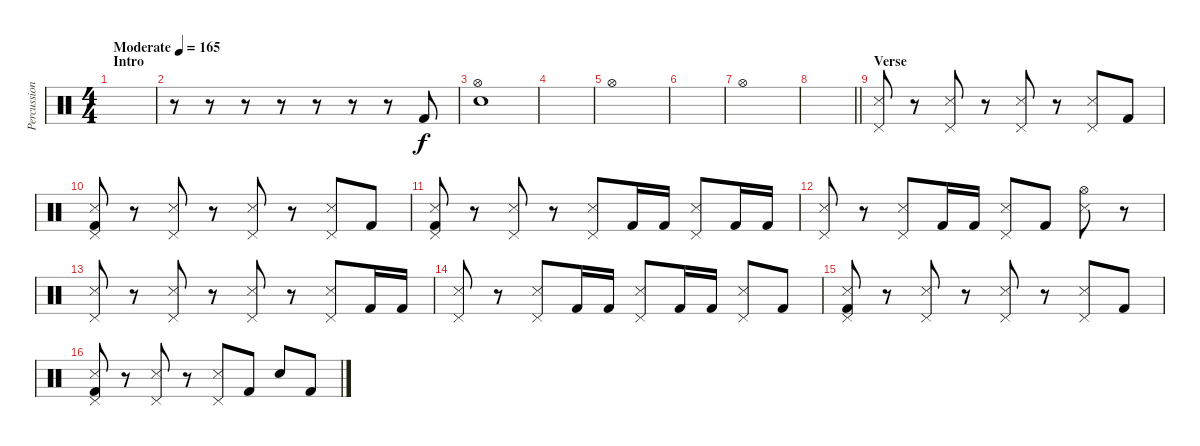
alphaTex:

\track ("Percussion" "Percussion") {instrument percussion}
\staff {score}
\articulation defaults
\ts (4 4)
\section ("" "Intro")
\tempo (165 "Moderate")
\clef neutral
\ks c
|
r.8 r.8 r.8 r.8 r.8 r.8 r.8 "Kick (hit) 2".8 |
("Hi-Hat (open)" "Electric Snare (hit)").1 |
|
"Hi-Hat (open)".1 |
|
"Hi-Hat (open)".1 |
\barLineRight lightlight
|
\section ("" "Verse")
("Pedal Hi-Hat (hit)" "Snare (side stick) 3").8 r.8 ("Pedal Hi-Hat (hit)" "Snare (side stick) 3").8 r.8 ("Pedal Hi-Hat (hit)" "Snare (side stick) 3").8 r.8 ("Pedal Hi-Hat (hit)" "Snare (side stick) 3").8 "Kick (hit) 2".8 |
("Pedal Hi-Hat (hit)" "Snare (side stick) 3" "Kick (hit) 2").8 r.8 ("Pedal Hi-Hat (hit)" "Snare (side stick) 3").8 r.8 ("Pedal Hi-Hat (hit)" "Snare (side stick) 3").8 r.8 ("Pedal Hi-Hat (hit)" "Snare (side stick) 3").8 "Kick (hit) 2".8 |
("Pedal Hi-Hat (hit)" "Snare (side stick) 3" "Kick (hit) 2").8 r.8 ("Pedal Hi-Hat (hit)" "Snare (side stick) 3").8 r.8 ("Pedal Hi-Hat (hit)" "Snare (side stick) 3").8 "Kick (hit) 2".16 "Kick (hit) 2".16 ("Pedal Hi-Hat (hit)" "Snare (side stick) 3").8 "Kick (hit) 2".16 "Kick (hit) 2".16 |
("Pedal Hi-Hat (hit)" "Snare (side stick) 3").8 r.8 ("Pedal Hi-Hat (hit)" "Snare (side stick) 3").8 "Kick (hit) 2".16 "Kick (hit) 2".16 ("Pedal Hi-Hat (hit)" "Snare (side stick) 3").8 "Kick (hit) 2".8 ("Hi-Hat (open)" "Snare (side stick) 3").8 r.8 |
("Pedal Hi-Hat (hit)" "Snare (side stick) 3").8 r.8 ("Pedal Hi-Hat (hit)" "Snare (side stick) 3").8 r.8 ("Pedal Hi-Hat (hit)" "Snare (side stick) 3").8 r.8 ("Pedal Hi-Hat (hit)" "Snare (side stick) 3").8 "Kick (hit) 2".16 "Kick (hit) 2".16 |
("Pedal Hi-Hat (hit)" "Snare (side stick) 3").8 r.8 ("Pedal Hi-Hat (hit)" "Snare (side stick) 3").8 "Kick (hit) 2".16 "Kick (hit) 2".16 ("Pedal Hi-Hat (hit)" "Snare (side stick) 3").8 "Kick (hit) 2".16 "Kick (hit) 2".16 ("Pedal Hi-Hat (hit)" "Snare (side stick) 3").8 "Kick (hit) 2".8 |
("Pedal Hi-Hat (hit)" "Snare (side stick) 3" "Kick (hit) 2").8 r.8 ("Pedal Hi-Hat (hit)" "Snare (side stick) 3").8 r.8 ("Pedal Hi-Hat (hit)" "Snare (side stick) 3").8 r.8 ("Pedal Hi-Hat (hit)" "Snare (side stick) 3").8 "Kick (hit) 2".8 |
("Pedal Hi-Hat (hit)" "Snare (side stick) 3" "Kick (hit) 2").8 r.8 ("Pedal Hi-Hat (hit)" "Snare (side stick) 3").8 r.8 ("Pedal Hi-Hat (hit)" "Snare (side stick) 3").8 "Kick (hit) 2".8 "Electric Snare (hit)".8 "Kick (hit) 2".8
